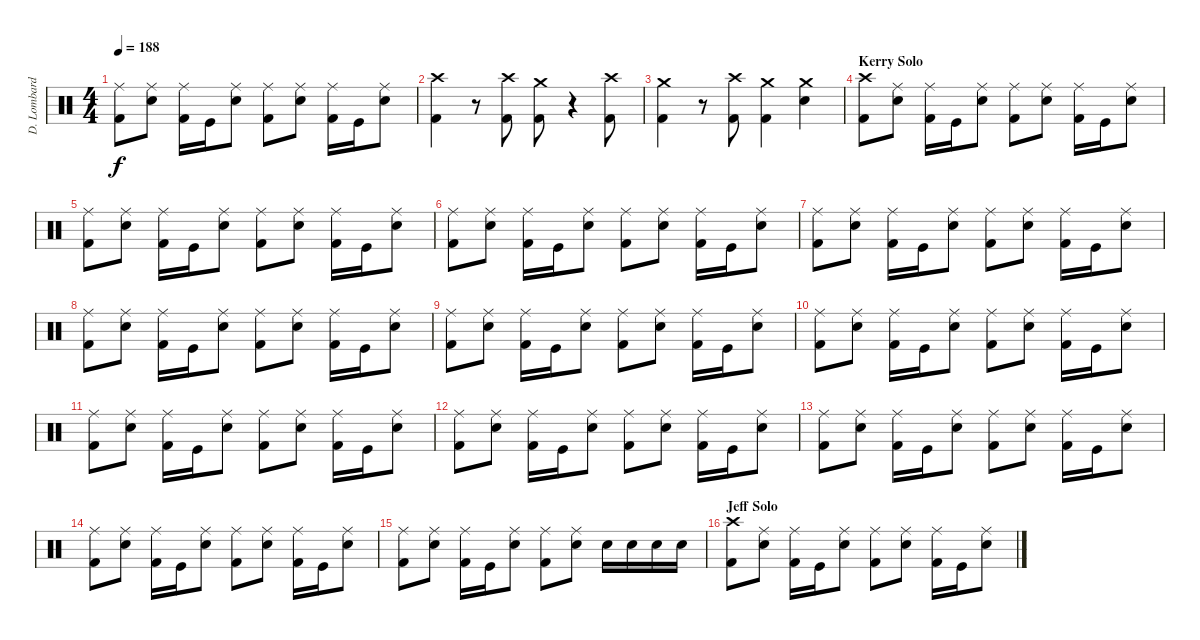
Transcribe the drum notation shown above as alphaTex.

\track ("D. Lombardo" "D. Lombard") {instrument percussion}
\staff {score}
\articulation defaults
\ts (4 4)
\tempo 188
\clef neutral
\ks c
("Ride (middle)" "Kick (hit) 2").8{dy f} ("Ride (middle)" "Electric Snare (hit)").8 ("Ride (middle)" "Kick (hit) 2").16 "Kick (hit)".16 ("Ride (middle)" "Electric Snare (hit)").8 ("Ride (middle)" "Kick (hit) 2").8 ("Ride (middle)" "Electric Snare (hit)").8 ("Ride (middle)" "Kick (hit) 2").16 "Kick (hit)".16 ("Ride (middle)" "Electric Snare (hit)").8 |
("Crash high (hit)" "Kick (hit) 2").4 r.8 ("Crash high (hit)" "Kick (hit) 2").8 ("Crash medium (hit)" "Kick (hit) 2").8 r.4 ("Crash high (hit)" "Kick (hit) 2").8 |
("Crash medium (hit)" "Kick (hit) 2").4 r.8 ("Crash high (hit)" "Kick (hit) 2").8 ("Crash medium (hit)" "Kick (hit) 2").4 ("Crash medium (hit)" "Electric Snare (hit)").4 |
\section ("" "Kerry Solo")
("Crash high (hit)" "Kick (hit) 2").8 ("Ride (middle)" "Electric Snare (hit)").8 ("Ride (middle)" "Kick (hit) 2").16 "Kick (hit)".16 ("Ride (middle)" "Electric Snare (hit)").8 ("Ride (middle)" "Kick (hit) 2").8 ("Ride (middle)" "Electric Snare (hit)").8 ("Ride (middle)" "Kick (hit) 2").16 "Kick (hit)".16 ("Ride (middle)" "Electric Snare (hit)").8 |
("Ride (middle)" "Kick (hit) 2").8 ("Ride (middle)" "Electric Snare (hit)").8 ("Ride (middle)" "Kick (hit) 2").16 "Kick (hit)".16 ("Ride (middle)" "Electric Snare (hit)").8 ("Ride (middle)" "Kick (hit) 2").8 ("Ride (middle)" "Electric Snare (hit)").8 ("Ride (middle)" "Kick (hit) 2").16 "Kick (hit)".16 ("Ride (middle)" "Electric Snare (hit)").8 |
("Ride (middle)" "Kick (hit) 2").8 ("Ride (middle)" "Electric Snare (hit)").8 ("Ride (middle)" "Kick (hit) 2").16 "Kick (hit)".16 ("Ride (middle)" "Electric Snare (hit)").8 ("Ride (middle)" "Kick (hit) 2").8 ("Ride (middle)" "Electric Snare (hit)").8 ("Ride (middle)" "Kick (hit) 2").16 "Kick (hit)".16 ("Ride (middle)" "Electric Snare (hit)").8 |
("Ride (middle)" "Kick (hit) 2").8 ("Ride (middle)" "Electric Snare (hit)").8 ("Ride (middle)" "Kick (hit) 2").16 "Kick (hit)".16 ("Ride (middle)" "Electric Snare (hit)").8 ("Ride (middle)" "Kick (hit) 2").8 ("Ride (middle)" "Electric Snare (hit)").8 ("Ride (middle)" "Kick (hit) 2").16 "Kick (hit)".16 ("Ride (middle)" "Electric Snare (hit)").8 |
("Ride (middle)" "Kick (hit) 2").8 ("Ride (middle)" "Electric Snare (hit)").8 ("Ride (middle)" "Kick (hit) 2").16 "Kick (hit)".16 ("Ride (middle)" "Electric Snare (hit)").8 ("Ride (middle)" "Kick (hit) 2").8 ("Ride (middle)" "Electric Snare (hit)").8 ("Ride (middle)" "Kick (hit) 2").16 "Kick (hit)".16 ("Ride (middle)" "Electric Snare (hit)").8 |
("Ride (middle)" "Kick (hit) 2").8 ("Ride (middle)" "Electric Snare (hit)").8 ("Ride (middle)" "Kick (hit) 2").16 "Kick (hit)".16 ("Ride (middle)" "Electric Snare (hit)").8 ("Ride (middle)" "Kick (hit) 2").8 ("Ride (middle)" "Electric Snare (hit)").8 ("Ride (middle)" "Kick (hit) 2").16 "Kick (hit)".16 ("Ride (middle)" "Electric Snare (hit)").8 |
("Ride (middle)" "Kick (hit) 2").8 ("Ride (middle)" "Electric Snare (hit)").8 ("Ride (middle)" "Kick (hit) 2").16 "Kick (hit)".16 ("Ride (middle)" "Electric Snare (hit)").8 ("Ride (middle)" "Kick (hit) 2").8 ("Ride (middle)" "Electric Snare (hit)").8 ("Ride (middle)" "Kick (hit) 2").16 "Kick (hit)".16 ("Ride (middle)" "Electric Snare (hit)").8 |
("Ride (middle)" "Kick (hit) 2").8 ("Ride (middle)" "Electric Snare (hit)").8 ("Ride (middle)" "Kick (hit) 2").16 "Kick (hit)".16 ("Ride (middle)" "Electric Snare (hit)").8 ("Ride (middle)" "Kick (hit) 2").8 ("Ride (middle)" "Electric Snare (hit)").8 ("Ride (middle)" "Kick (hit) 2").16 "Kick (hit)".16 ("Ride (middle)" "Electric Snare (hit)").8 |
("Ride (middle)" "Kick (hit) 2").8 ("Ride (middle)" "Electric Snare (hit)").8 ("Ride (middle)" "Kick (hit) 2").16 "Kick (hit)".16 ("Ride (middle)" "Electric Snare (hit)").8 ("Ride (middle)" "Kick (hit) 2").8 ("Ride (middle)" "Electric Snare (hit)").8 ("Ride (middle)" "Kick (hit) 2").16 "Kick (hit)".16 ("Ride (middle)" "Electric Snare (hit)").8 |
("Ride (middle)" "Kick (hit) 2").8 ("Ride (middle)" "Electric Snare (hit)").8 ("Ride (middle)" "Kick (hit) 2").16 "Kick (hit)".16 ("Ride (middle)" "Electric Snare (hit)").8 ("Ride (middle)" "Kick (hit) 2").8 ("Ride (middle)" "Electric Snare (hit)").8 ("Ride (middle)" "Kick (hit) 2").16 "Kick (hit)".16 ("Ride (middle)" "Electric Snare (hit)").8 |
("Ride (middle)" "Kick (hit) 2").8 ("Ride (middle)" "Electric Snare (hit)").8 ("Ride (middle)" "Kick (hit) 2").16 "Kick (hit)".16 ("Ride (middle)" "Electric Snare (hit)").8 ("Ride (middle)" "Kick (hit) 2").8 ("Ride (middle)" "Electric Snare (hit)").8 ("Ride (middle)" "Kick (hit) 2").16 "Kick (hit)".16 ("Ride (middle)" "Electric Snare (hit)").8 |
("Ride (middle)" "Kick (hit) 2").8 ("Ride (middle)" "Electric Snare (hit)").8 ("Ride (middle)" "Kick (hit) 2").16 "Kick (hit)".16 ("Ride (middle)" "Electric Snare (hit)").8 ("Ride (middle)" "Kick (hit) 2").8 ("Ride (middle)" "Electric Snare (hit)").8 "Electric Snare (hit)".16 "Electric Snare (hit)".16 "Electric Snare (hit)".16 "Electric Snare (hit)".16 |
\section ("" "Jeff Solo")
("Crash high (hit)" "Kick (hit) 2").8 ("Ride (middle)" "Electric Snare (hit)").8 ("Ride (middle)" "Kick (hit) 2").16 "Kick (hit)".16 ("Ride (middle)" "Electric Snare (hit)").8 ("Ride (middle)" "Kick (hit) 2").8 ("Ride (middle)" "Electric Snare (hit)").8 ("Ride (middle)" "Kick (hit) 2").16 "Kick (hit)".16 ("Ride (middle)" "Electric Snare (hit)").8
